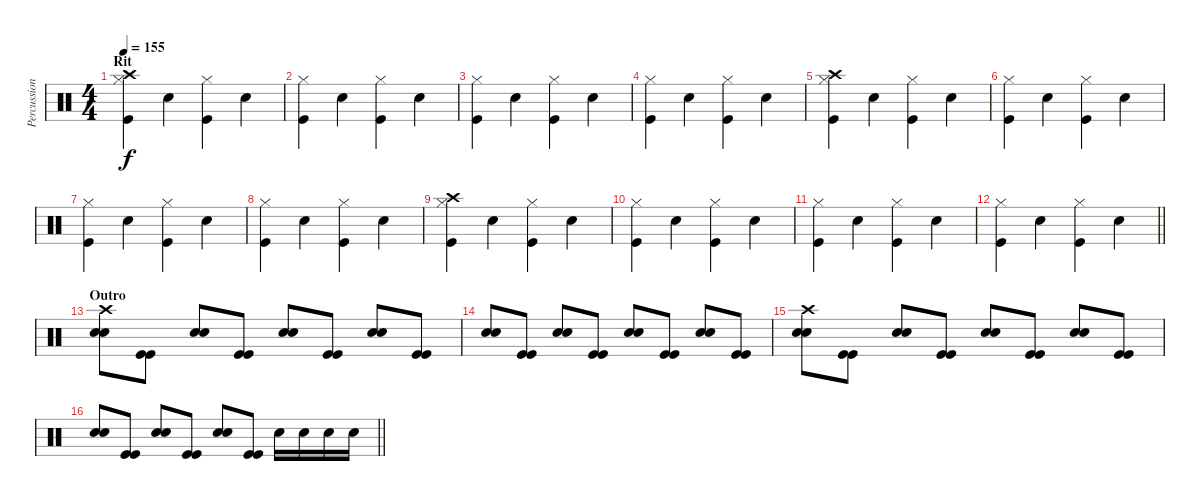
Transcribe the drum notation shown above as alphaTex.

\track ("Percussioni" "Percussion") {instrument percussion}
\staff {score}
\articulation defaults
\ts (4 4)
\section ("" "Rit")
\tempo 155
\clef neutral
\ks c
("Hi-Hat (closed)" "Kick (hit)" "Crash high (hit)").4{dy f} "Snare (hit) 2".4 ("Hi-Hat (closed)" "Kick (hit)").4 "Snare (hit) 2".4 |
("Hi-Hat (closed)" "Kick (hit)").4 "Snare (hit) 2".4 ("Hi-Hat (closed)" "Kick (hit)").4 "Snare (hit) 2".4 |
("Hi-Hat (closed)" "Kick (hit)").4 "Snare (hit) 2".4 ("Hi-Hat (closed)" "Kick (hit)").4 "Snare (hit) 2".4 |
("Hi-Hat (closed)" "Kick (hit)").4 "Snare (hit) 2".4 ("Hi-Hat (closed)" "Kick (hit)").4 "Snare (hit) 2".4 |
("Hi-Hat (closed)" "Kick (hit)" "Crash high (hit)").4 "Snare (hit) 2".4 ("Hi-Hat (closed)" "Kick (hit)").4 "Snare (hit) 2".4 |
("Hi-Hat (closed)" "Kick (hit)").4 "Snare (hit) 2".4 ("Hi-Hat (closed)" "Kick (hit)").4 "Snare (hit) 2".4 |
("Hi-Hat (closed)" "Kick (hit)").4 "Snare (hit) 2".4 ("Hi-Hat (closed)" "Kick (hit)").4 "Snare (hit) 2".4 |
("Hi-Hat (closed)" "Kick (hit)").4 "Snare (hit) 2".4 ("Hi-Hat (closed)" "Kick (hit)").4 "Snare (hit) 2".4 |
("Hi-Hat (closed)" "Kick (hit)" "Crash high (hit)").4 "Snare (hit) 2".4 ("Hi-Hat (closed)" "Kick (hit)").4 "Snare (hit) 2".4 |
("Hi-Hat (closed)" "Kick (hit)").4 "Snare (hit) 2".4 ("Hi-Hat (closed)" "Kick (hit)").4 "Snare (hit) 2".4 |
("Hi-Hat (closed)" "Kick (hit)").4 "Snare (hit) 2".4 ("Hi-Hat (closed)" "Kick (hit)").4 "Snare (hit) 2".4 |
\barLineRight lightlight
("Hi-Hat (closed)" "Kick (hit)").4 "Snare (hit) 2".4 ("Hi-Hat (closed)" "Kick (hit)").4 "Snare (hit) 2".4 |
\section ("" "Outro")
("Snare (hit) 2" "Snare (hit) 2" "Crash high (hit)").8 ("Kick (hit)" "Kick (hit)").8 ("Snare (hit) 2" "Snare (hit) 2").8 ("Kick (hit)" "Kick (hit)").8 ("Snare (hit) 2" "Snare (hit) 2").8 ("Kick (hit)" "Kick (hit)").8 ("Snare (hit) 2" "Snare (hit) 2").8 ("Kick (hit)" "Kick (hit)").8 |
("Snare (hit) 2" "Snare (hit) 2").8 ("Kick (hit)" "Kick (hit)").8 ("Snare (hit) 2" "Snare (hit) 2").8 ("Kick (hit)" "Kick (hit)").8 ("Snare (hit) 2" "Snare (hit) 2").8 ("Kick (hit)" "Kick (hit)").8 ("Snare (hit) 2" "Snare (hit) 2").8 ("Kick (hit)" "Kick (hit)").8 |
("Snare (hit) 2" "Snare (hit) 2" "Crash high (hit)").8 ("Kick (hit)" "Kick (hit)").8 ("Snare (hit) 2" "Snare (hit) 2").8 ("Kick (hit)" "Kick (hit)").8 ("Snare (hit) 2" "Snare (hit) 2").8 ("Kick (hit)" "Kick (hit)").8 ("Snare (hit) 2" "Snare (hit) 2").8 ("Kick (hit)" "Kick (hit)").8 |
\barLineRight lightlight
("Snare (hit) 2" "Snare (hit) 2").8 ("Kick (hit)" "Kick (hit)").8 ("Snare (hit) 2" "Snare (hit) 2").8 ("Kick (hit)" "Kick (hit)").8 ("Snare (hit) 2" "Snare (hit) 2").8 ("Kick (hit)" "Kick (hit)").8 "Snare (hit) 2".16 "Snare (hit) 2".16 "Snare (hit) 2".16 "Snare (hit) 2".16
